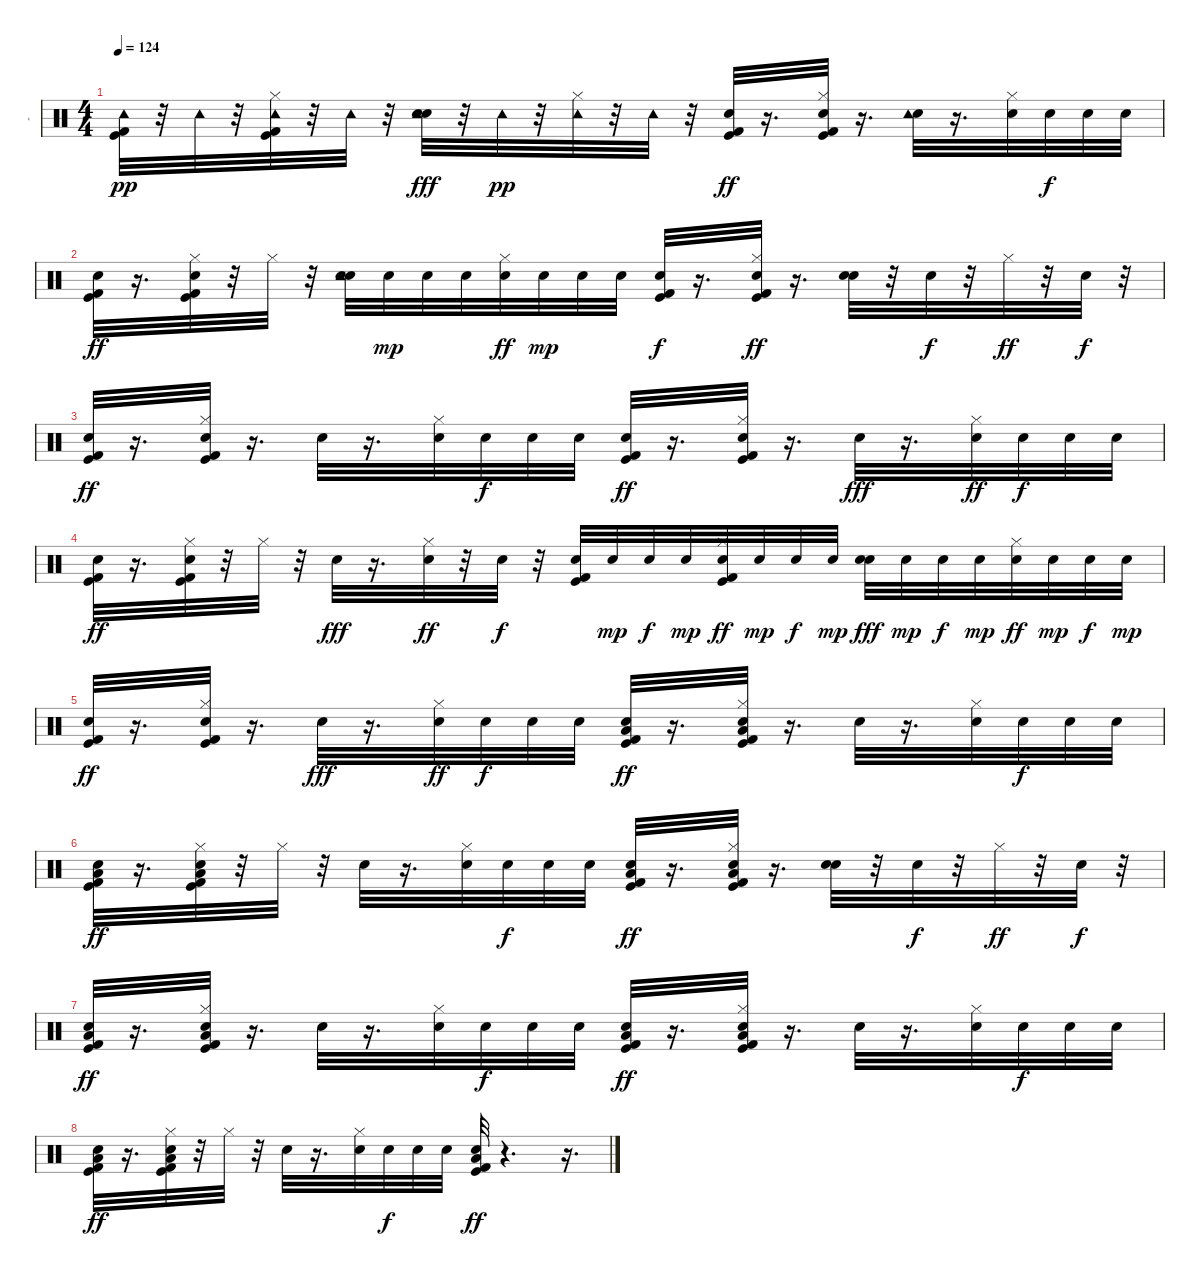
\track ("-" "-") {instrument percussion}
\staff {score}
\articulation defaults
\ts (4 4)
\tempo 124
\clef neutral
\ks c
("Kick (hit)" "Kick (hit) 2" "Tambourine (hit)").32{dy pp} r.32 "Tambourine (hit)".32 r.32 ("Kick (hit)" "Kick (hit) 2" "Hi-Hat (closed)" "Tambourine (hit)").32 r.32 "Tambourine (hit)".32 r.32 ("Snare (hit) 2" "Hand Clap (hit)" "Tambourine (hit)").32{dy fff} r.32 "Tambourine (hit)".32{dy pp} r.32 ("Hi-Hat (closed)" "Tambourine (hit)").32 r.32 "Tambourine (hit)".32 r.32 ("Kick (hit)" "Kick (hit) 2" "Electric Snare (hit)").32{dy ff} r.16{d} ("Kick (hit)" "Kick (hit) 2" "Electric Snare (hit)" "Hi-Hat (closed)").32 r.16{d} ("Hand Clap (hit)" "Tambourine (hit)").32 r.16{d} ("Electric Snare (hit)" "Hi-Hat (closed)").32 "Electric Snare (hit)".32{dy f} "Electric Snare (hit)".32 "Electric Snare (hit)".32 |
("Kick (hit)" "Kick (hit) 2" "Electric Snare (hit)").32{dy ff} r.16{d} ("Kick (hit)" "Kick (hit) 2" "Electric Snare (hit)" "Hi-Hat (closed)").32 r.32 "Hi-Hat (closed)".32 r.32 ("Hand Clap (hit)" "Electric Snare (hit)" "Tambourine (hit)").32 "Electric Snare (hit)".32{dy mp} "Electric Snare (hit)".32 "Electric Snare (hit)".32 ("Electric Snare (hit)" "Hi-Hat (closed)").32{dy ff} "Electric Snare (hit)".32{dy mp} "Electric Snare (hit)".32 "Electric Snare (hit)".32 ("Kick (hit)" "Kick (hit) 2" "Electric Snare (hit)").32{dy f} r.16{d} ("Kick (hit)" "Kick (hit) 2" "Electric Snare (hit)" "Hi-Hat (closed)").32{dy ff} r.16{d} ("Hand Clap (hit)" "Electric Snare (hit)").32 r.32 "Electric Snare (hit)".32{dy f} r.32 "Hi-Hat (closed)".32{dy ff} r.32 "Electric Snare (hit)".32{dy f} r.32 |
("Kick (hit)" "Kick (hit) 2" "Electric Snare (hit)").32{dy ff} r.16{d} ("Kick (hit)" "Kick (hit) 2" "Electric Snare (hit)" "Hi-Hat (closed)").32 r.16{d} "Hand Clap (hit)".32 r.16{d} ("Electric Snare (hit)" "Hi-Hat (closed)").32 "Electric Snare (hit)".32{dy f} "Electric Snare (hit)".32 "Electric Snare (hit)".32 ("Kick (hit)" "Kick (hit) 2" "Electric Snare (hit)").32{dy ff} r.16{d} ("Kick (hit)" "Kick (hit) 2" "Electric Snare (hit)" "Hi-Hat (closed)").32 r.16{d} "Hand Clap (hit)".32{dy fff} r.16{d} ("Electric Snare (hit)" "Hi-Hat (closed)").32{dy ff} "Electric Snare (hit)".32{dy f} "Electric Snare (hit)".32 "Electric Snare (hit)".32 |
("Kick (hit)" "Kick (hit) 2" "Electric Snare (hit)").32{dy ff} r.16{d} ("Kick (hit)" "Kick (hit) 2" "Electric Snare (hit)" "Hi-Hat (closed)").32 r.32 "Hi-Hat (closed)".32 r.32 "Hand Clap (hit)".32{dy fff} r.16{d} ("Electric Snare (hit)" "Hi-Hat (closed)").32{dy ff} r.32 "Electric Snare (hit)".32{dy f} r.32 ("Kick (hit)" "Kick (hit) 2" "Electric Snare (hit)").32 "Electric Snare (hit)".32{dy mp} "Electric Snare (hit)".32{dy f} "Electric Snare (hit)".32{dy mp} ("Kick (hit)" "Kick (hit) 2" "Electric Snare (hit)" "Hi-Hat (closed)").32{dy ff} "Electric Snare (hit)".32{dy mp} "Electric Snare (hit)".32{dy f} "Electric Snare (hit)".32{dy mp} ("Hand Clap (hit)" "Electric Snare (hit)").32{dy fff} "Electric Snare (hit)".32{dy mp} "Electric Snare (hit)".32{dy f} "Electric Snare (hit)".32{dy mp} ("Electric Snare (hit)" "Hi-Hat (closed)").32{dy ff} "Electric Snare (hit)".32{dy mp} "Electric Snare (hit)".32{dy f} "Electric Snare (hit)".32{dy mp} |
("Kick (hit)" "Kick (hit) 2" "Electric Snare (hit)").32{dy ff} r.16{d} ("Kick (hit)" "Kick (hit) 2" "Electric Snare (hit)" "Hi-Hat (closed)").32 r.16{d} "Hand Clap (hit)".32{dy fff} r.16{d} ("Electric Snare (hit)" "Hi-Hat (closed)").32{dy ff} "Electric Snare (hit)".32{dy f} "Electric Snare (hit)".32 "Electric Snare (hit)".32 ("Kick (hit)" "Kick (hit) 2" "Electric Snare (hit)" "Low Floor Tom (hit)").32{dy ff} r.16{d} ("Kick (hit)" "Kick (hit) 2" "Electric Snare (hit)" "Low Floor Tom (hit)" "Hi-Hat (closed)").32 r.16{d} "Hand Clap (hit)".32 r.16{d} ("Electric Snare (hit)" "Hi-Hat (closed)").32 "Electric Snare (hit)".32{dy f} "Electric Snare (hit)".32 "Electric Snare (hit)".32 |
("Kick (hit)" "Kick (hit) 2" "Electric Snare (hit)" "Low Floor Tom (hit)").32{dy ff} r.16{d} ("Kick (hit)" "Kick (hit) 2" "Electric Snare (hit)" "Low Floor Tom (hit)" "Hi-Hat (closed)").32 r.32 "Hi-Hat (closed)".32 r.32 "Hand Clap (hit)".32 r.16{d} ("Electric Snare (hit)" "Hi-Hat (closed)").32 "Electric Snare (hit)".32{dy f} "Electric Snare (hit)".32 "Electric Snare (hit)".32 ("Kick (hit)" "Kick (hit) 2" "Electric Snare (hit)" "Low Floor Tom (hit)").32{dy ff} r.16{d} ("Kick (hit)" "Kick (hit) 2" "Electric Snare (hit)" "Low Floor Tom (hit)" "Hi-Hat (closed)").32 r.16{d} ("Snare (hit) 2" "Hand Clap (hit)").32 r.32 "Snare (hit) 2".32{dy f} r.32 "Hi-Hat (closed)".32{dy ff} r.32 "Snare (hit) 2".32{dy f} r.32 |
("Kick (hit)" "Kick (hit) 2" "Electric Snare (hit)" "Low Floor Tom (hit)").32{dy ff} r.16{d} ("Kick (hit)" "Kick (hit) 2" "Electric Snare (hit)" "Low Floor Tom (hit)" "Hi-Hat (closed)").32 r.16{d} "Hand Clap (hit)".32 r.16{d} ("Electric Snare (hit)" "Hi-Hat (closed)").32 "Electric Snare (hit)".32{dy f} "Electric Snare (hit)".32 "Electric Snare (hit)".32 ("Kick (hit)" "Kick (hit) 2" "Electric Snare (hit)" "Low Floor Tom (hit)").32{dy ff} r.16{d} ("Kick (hit)" "Kick (hit) 2" "Electric Snare (hit)" "Low Floor Tom (hit)" "Hi-Hat (closed)").32 r.16{d} "Hand Clap (hit)".32 r.16{d} ("Electric Snare (hit)" "Hi-Hat (closed)").32 "Electric Snare (hit)".32{dy f} "Electric Snare (hit)".32 "Electric Snare (hit)".32 |
("Kick (hit)" "Kick (hit) 2" "Electric Snare (hit)" "Low Floor Tom (hit)").32{dy ff} r.16{d} ("Kick (hit)" "Kick (hit) 2" "Electric Snare (hit)" "Low Floor Tom (hit)" "Hi-Hat (closed)").32 r.32 "Hi-Hat (closed)".32 r.32 "Hand Clap (hit)".32 r.16{d} ("Electric Snare (hit)" "Hi-Hat (closed)").32 "Electric Snare (hit)".32{dy f} "Electric Snare (hit)".32 "Electric Snare (hit)".32 ("Kick (hit)" "Kick (hit) 2" "Electric Snare (hit)" "Low Floor Tom (hit)").32{dy ff} r.4{d} r.16{d}
